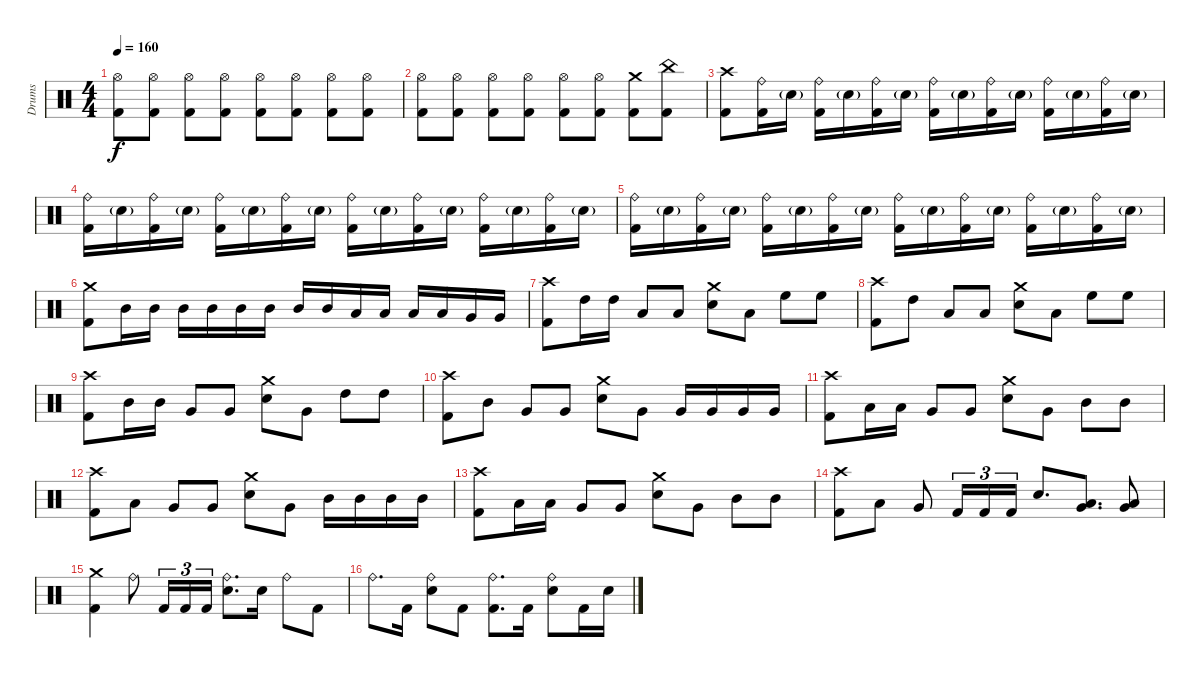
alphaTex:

\track ("Drums" "Drums") {instrument percussion}
\staff {score}
\articulation defaults
\ts (4 4)
\tempo 160
\clef neutral
\ks c
("Hi-Hat (open)" "Kick (hit) 2").8{dy f} ("Hi-Hat (open)" "Kick (hit) 2").8 ("Hi-Hat (open)" "Kick (hit) 2").8 ("Hi-Hat (open)" "Kick (hit) 2").8 ("Hi-Hat (open)" "Kick (hit) 2").8 ("Hi-Hat (open)" "Kick (hit) 2").8 ("Hi-Hat (open)" "Kick (hit) 2").8 ("Hi-Hat (open)" "Kick (hit) 2").8 |
("Hi-Hat (open)" "Kick (hit) 2").8 ("Hi-Hat (open)" "Kick (hit) 2").8 ("Hi-Hat (open)" "Kick (hit) 2").8 ("Hi-Hat (open)" "Kick (hit) 2").8 ("Hi-Hat (open)" "Kick (hit) 2").8 ("Hi-Hat (open)" "Kick (hit) 2").8 ("Crash medium (hit)" "Kick (hit) 2").8 ("China (hit)" "Kick (hit) 2").8 |
("Crash high (hit)" "Kick (hit) 2").8 ("Ride (bell)" "Kick (hit) 2").16 "Snare (hit) 2"{g}.16 ("Ride (bell)" "Kick (hit) 2").16 "Snare (hit) 2"{g}.16 ("Ride (bell)" "Kick (hit) 2").16 "Snare (hit) 2"{g}.16 ("Ride (bell)" "Kick (hit) 2").16 "Snare (hit) 2"{g}.16 ("Ride (bell)" "Kick (hit) 2").16 "Snare (hit) 2"{g}.16 ("Ride (bell)" "Kick (hit) 2").16 "Snare (hit) 2"{g}.16 ("Ride (bell)" "Kick (hit) 2").16 "Snare (hit) 2"{g}.16 |
("Ride (bell)" "Kick (hit) 2").16 "Snare (hit) 2"{g}.16 ("Ride (bell)" "Kick (hit) 2").16 "Snare (hit) 2"{g}.16 ("Ride (bell)" "Kick (hit) 2").16 "Snare (hit) 2"{g}.16 ("Ride (bell)" "Kick (hit) 2").16 "Snare (hit) 2"{g}.16 ("Ride (bell)" "Kick (hit) 2").16 "Snare (hit) 2"{g}.16 ("Ride (bell)" "Kick (hit) 2").16 "Snare (hit) 2"{g}.16 ("Ride (bell)" "Kick (hit) 2").16 "Snare (hit) 2"{g}.16 ("Ride (bell)" "Kick (hit) 2").16 "Snare (hit) 2"{g}.16 |
("Ride (bell)" "Kick (hit) 2").16 "Snare (hit) 2"{g}.16 ("Ride (bell)" "Kick (hit) 2").16 "Snare (hit) 2"{g}.16 ("Ride (bell)" "Kick (hit) 2").16 "Snare (hit) 2"{g}.16 ("Ride (bell)" "Kick (hit) 2").16 "Snare (hit) 2"{g}.16 ("Ride (bell)" "Kick (hit) 2").16 "Snare (hit) 2"{g}.16 ("Ride (bell)" "Kick (hit) 2").16 "Snare (hit) 2"{g}.16 ("Ride (bell)" "Kick (hit) 2").16 "Snare (hit) 2"{g}.16 ("Ride (bell)" "Kick (hit) 2").16 "Snare (hit) 2"{g}.16 |
("Crash medium (hit)" "Kick (hit) 2").8 "Mid Tom (hit)".16 "Mid Tom (hit)".16 "Mid Tom (hit)".16 "Mid Tom (hit)".16 "Mid Tom (hit)".16 "Mid Tom (hit)".16 "Mid Tom (hit)".16 "Mid Tom (hit)".16 "Low Tom (hit)".16 "Low Tom (hit)".16 "Low Tom (hit)".16 "Low Tom (hit)".16 "Very Low Tom (hit)".16 "Very Low Tom (hit)".16 |
("Crash high (hit)" "Kick (hit) 2").8 "High Tom (hit)".16 "High Tom (hit)".16 "Low Tom (hit)".8 "Low Tom (hit)".8 ("Crash medium (hit)" "Snare (hit) 2").8 "Low Tom (hit)".8 "High Floor Tom (hit)".8 "High Floor Tom (hit)".8 |
("Crash high (hit)" "Kick (hit) 2").8 "High Tom (hit)".8 "Low Tom (hit)".8 "Low Tom (hit)".8 ("Crash medium (hit)" "Snare (hit) 2").8 "Low Tom (hit)".8 "High Floor Tom (hit)".8 "High Floor Tom (hit)".8 |
("Crash high (hit)" "Kick (hit) 2").8 "Mid Tom (hit)".16 "Mid Tom (hit)".16 "Very Low Tom (hit)".8 "Very Low Tom (hit)".8 ("Crash medium (hit)" "Snare (hit) 2").8 "Very Low Tom (hit)".8 "High Tom (hit)".8 "High Tom (hit)".8 |
("Crash high (hit)" "Kick (hit) 2").8 "Mid Tom (hit)".8 "Very Low Tom (hit)".8 "Very Low Tom (hit)".8 ("Crash medium (hit)" "Snare (hit) 2").8 "Very Low Tom (hit)".8 "Very Low Tom (hit)".16 "Very Low Tom (hit)".16 "Very Low Tom (hit)".16 "Very Low Tom (hit)".16 |
("Crash high (hit)" "Kick (hit) 2").8 "Low Tom (hit)".16 "Low Tom (hit)".16 "Very Low Tom (hit)".8 "Very Low Tom (hit)".8 ("Crash medium (hit)" "Snare (hit) 2").8 "Very Low Tom (hit)".8 "Mid Tom (hit)".8 "Mid Tom (hit)".8 |
("Crash high (hit)" "Kick (hit) 2").8 "Low Tom (hit)".8 "Very Low Tom (hit)".8 "Very Low Tom (hit)".8 ("Crash medium (hit)" "Snare (hit) 2").8 "Very Low Tom (hit)".8 "Mid Tom (hit)".16 "Mid Tom (hit)".16 "Mid Tom (hit)".16 "Mid Tom (hit)".16 |
("Crash high (hit)" "Kick (hit) 2").8 "Low Tom (hit)".16 "Low Tom (hit)".16 "Very Low Tom (hit)".8 "Very Low Tom (hit)".8 ("Crash medium (hit)" "Snare (hit) 2").8 "Very Low Tom (hit)".8 "Mid Tom (hit)".8 "Mid Tom (hit)".8 |
("Crash high (hit)" "Kick (hit) 2").8 "Low Tom (hit)".8 "Very Low Tom (hit)".8 "Kick (hit) 2".16{tu (3 2)} "Kick (hit) 2".16{tu (3 2)} "Kick (hit) 2".16{tu (3 2)} "Snare (hit) 2".8{d} ("Low Tom (hit)" "Very Low Tom (hit)").8{d} ("Low Tom (hit)" "Very Low Tom (hit)").8 |
("Crash medium (hit)" "Kick (hit) 2").4 "Ride (bell)".8 "Kick (hit) 2".16{tu (3 2)} "Kick (hit) 2".16{tu (3 2)} "Kick (hit) 2".16{tu (3 2)} ("Ride (bell)" "Snare (hit) 2").8{d} "Snare (hit) 2".16 "Ride (bell)".8 "Kick (hit) 2".8 |
"Ride (bell)".8{d} "Kick (hit) 2".16 ("Ride (bell)" "Snare (hit) 2").8 "Kick (hit) 2".8 ("Ride (bell)" "Kick (hit) 2").8{d} "Kick (hit) 2".16 ("Ride (bell)" "Snare (hit) 2").8 "Kick (hit) 2".16 "Snare (hit) 2".16
